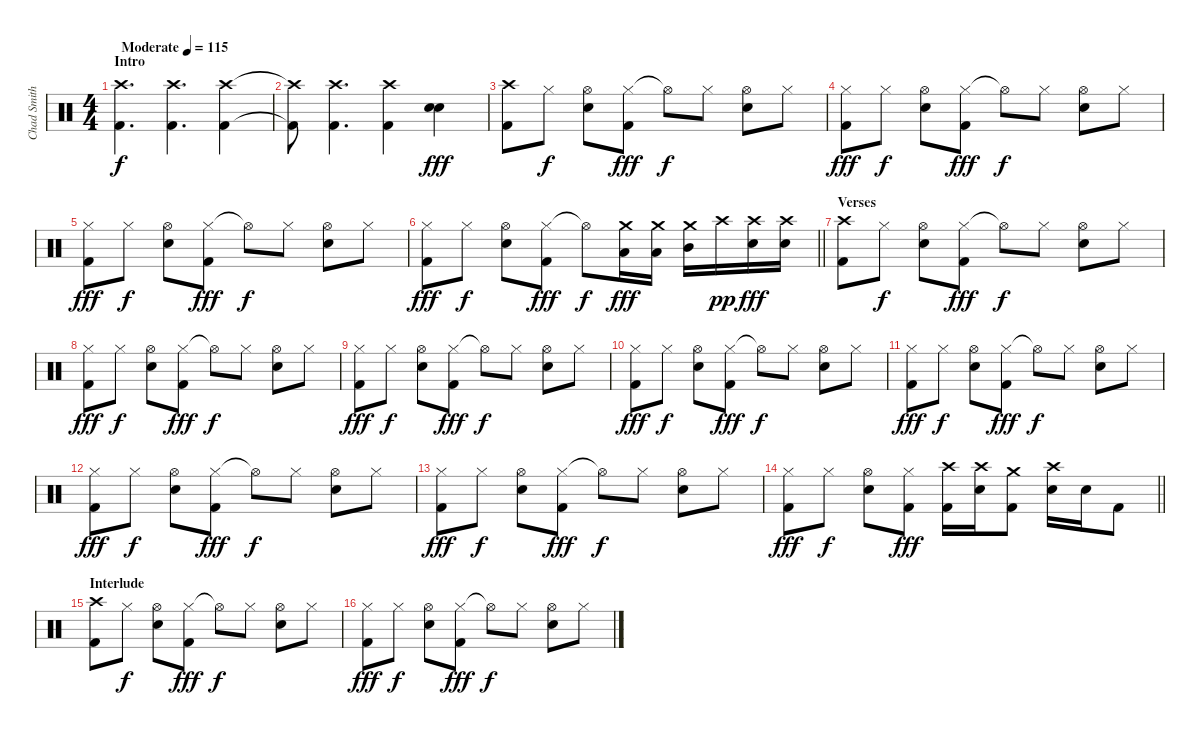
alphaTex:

\track ("Chad Smith - Drums" "Chad Smith") {instrument percussion}
\staff {score}
\articulation defaults
\ts (4 4)
\section ("" "Intro")
\tempo (115 "Moderate")
\clef neutral
\ks c
("Crash high (hit)" "Kick (hit) 2").4{d dy f} ("Crash high (hit)" "Kick (hit) 2").4{d} ("Crash high (hit)" "Kick (hit) 2").4 |
("Crash high (hit)"{t} "Kick (hit) 2"{t}).8 ("Crash high (hit)" "Kick (hit) 2").4{d} ("Crash high (hit)" "Kick (hit) 2").4 ("Electric Snare (hit)" "Electric Snare (hit)").4{dy fff} |
("Crash high (hit)" "Kick (hit) 2").8 "Hi-Hat (closed)".8{dy f} ("Hi-Hat (open)" "Electric Snare (hit)").8 ("Hi-Hat (closed)" "Kick (hit) 2").8{dy fff} "Hi-Hat (open)"{t}.8{dy f} "Hi-Hat (closed)".8 ("Hi-Hat (open)" "Electric Snare (hit)").8 "Hi-Hat (closed)".8 |
("Hi-Hat (closed)" "Kick (hit) 2").8{dy fff} "Hi-Hat (closed)".8{dy f} ("Hi-Hat (open)" "Electric Snare (hit)").8 ("Hi-Hat (closed)" "Kick (hit) 2").8{dy fff} "Hi-Hat (open)"{t}.8{dy f} "Hi-Hat (closed)".8 ("Hi-Hat (open)" "Electric Snare (hit)").8 "Hi-Hat (closed)".8 |
("Hi-Hat (closed)" "Kick (hit) 2").8{dy fff} "Hi-Hat (closed)".8{dy f} ("Hi-Hat (open)" "Electric Snare (hit)").8 ("Hi-Hat (closed)" "Kick (hit) 2").8{dy fff} "Hi-Hat (open)"{t}.8{dy f} "Hi-Hat (closed)".8 ("Hi-Hat (open)" "Electric Snare (hit)").8 "Hi-Hat (closed)".8 |
\barLineRight lightlight
("Hi-Hat (closed)" "Kick (hit) 2").8{dy fff} "Hi-Hat (closed)".8{dy f} ("Hi-Hat (open)" "Electric Snare (hit)").8 ("Hi-Hat (closed)" "Kick (hit) 2").8{dy fff} "Hi-Hat (open)"{t}.8{dy f} ("Crash medium (hit)" "Low Tom (hit)").16{dy fff} ("Crash medium (hit)" "Low Tom (hit)").16 ("Crash medium (hit)" "Mid Tom (hit)").16 "Crash high (hit)".16{dy pp} ("Crash high (hit)" "Electric Snare (hit)").16{dy fff} ("Crash high (hit)" "Electric Snare (hit)").16 |
\section ("" "Verses")
("Crash high (hit)" "Kick (hit) 2").8 "Hi-Hat (closed)".8{dy f} ("Hi-Hat (open)" "Electric Snare (hit)").8 ("Hi-Hat (closed)" "Kick (hit) 2").8{dy fff} "Hi-Hat (open)"{t}.8{dy f} "Hi-Hat (closed)".8 ("Hi-Hat (open)" "Electric Snare (hit)").8 "Hi-Hat (closed)".8 |
("Hi-Hat (closed)" "Kick (hit) 2").8{dy fff} "Hi-Hat (closed)".8{dy f} ("Hi-Hat (open)" "Electric Snare (hit)").8 ("Hi-Hat (closed)" "Kick (hit) 2").8{dy fff} "Hi-Hat (open)"{t}.8{dy f} "Hi-Hat (closed)".8 ("Hi-Hat (open)" "Electric Snare (hit)").8 "Hi-Hat (closed)".8 |
("Hi-Hat (closed)" "Kick (hit) 2").8{dy fff} "Hi-Hat (closed)".8{dy f} ("Hi-Hat (open)" "Electric Snare (hit)").8 ("Hi-Hat (closed)" "Kick (hit) 2").8{dy fff} "Hi-Hat (open)"{t}.8{dy f} "Hi-Hat (closed)".8 ("Hi-Hat (open)" "Electric Snare (hit)").8 "Hi-Hat (closed)".8 |
("Hi-Hat (closed)" "Kick (hit) 2").8{dy fff} "Hi-Hat (closed)".8{dy f} ("Hi-Hat (open)" "Electric Snare (hit)").8 ("Hi-Hat (closed)" "Kick (hit) 2").8{dy fff} "Hi-Hat (open)"{t}.8{dy f} "Hi-Hat (closed)".8 ("Hi-Hat (open)" "Electric Snare (hit)").8 "Hi-Hat (closed)".8 |
("Hi-Hat (closed)" "Kick (hit) 2").8{dy fff} "Hi-Hat (closed)".8{dy f} ("Hi-Hat (open)" "Electric Snare (hit)").8 ("Hi-Hat (closed)" "Kick (hit) 2").8{dy fff} "Hi-Hat (open)"{t}.8{dy f} "Hi-Hat (closed)".8 ("Hi-Hat (open)" "Electric Snare (hit)").8 "Hi-Hat (closed)".8 |
("Hi-Hat (closed)" "Kick (hit) 2").8{dy fff} "Hi-Hat (closed)".8{dy f} ("Hi-Hat (open)" "Electric Snare (hit)").8 ("Hi-Hat (closed)" "Kick (hit) 2").8{dy fff} "Hi-Hat (open)"{t}.8{dy f} "Hi-Hat (closed)".8 ("Hi-Hat (open)" "Electric Snare (hit)").8 "Hi-Hat (closed)".8 |
("Hi-Hat (closed)" "Kick (hit) 2").8{dy fff} "Hi-Hat (closed)".8{dy f} ("Hi-Hat (open)" "Electric Snare (hit)").8 ("Hi-Hat (closed)" "Kick (hit) 2").8{dy fff} "Hi-Hat (open)"{t}.8{dy f} "Hi-Hat (closed)".8 ("Hi-Hat (open)" "Electric Snare (hit)").8 "Hi-Hat (closed)".8 |
\barLineRight lightlight
("Hi-Hat (closed)" "Kick (hit) 2").8{dy fff} "Hi-Hat (closed)".8{dy f} ("Hi-Hat (open)" "Electric Snare (hit)").8 ("Hi-Hat (closed)" "Kick (hit) 2").8{dy fff} ("Crash high (hit)" "Kick (hit) 2").16 ("Crash high (hit)" "Electric Snare (hit)").16 ("Crash medium (hit)" "Kick (hit) 2").8 ("Crash high (hit)" "Electric Snare (hit)").16 "Electric Snare (hit)".16 "Kick (hit) 2".8 |
\section ("" "Interlude")
("Crash high (hit)" "Kick (hit) 2").8 "Hi-Hat (closed)".8{dy f} ("Hi-Hat (open)" "Electric Snare (hit)").8 ("Hi-Hat (closed)" "Kick (hit) 2").8{dy fff} "Hi-Hat (open)"{t}.8{dy f} "Hi-Hat (closed)".8 ("Hi-Hat (open)" "Electric Snare (hit)").8 "Hi-Hat (closed)".8 |
("Hi-Hat (closed)" "Kick (hit) 2").8{dy fff} "Hi-Hat (closed)".8{dy f} ("Hi-Hat (open)" "Electric Snare (hit)").8 ("Hi-Hat (closed)" "Kick (hit) 2").8{dy fff} "Hi-Hat (open)"{t}.8{dy f} "Hi-Hat (closed)".8 ("Hi-Hat (open)" "Electric Snare (hit)").8 "Hi-Hat (closed)".8
